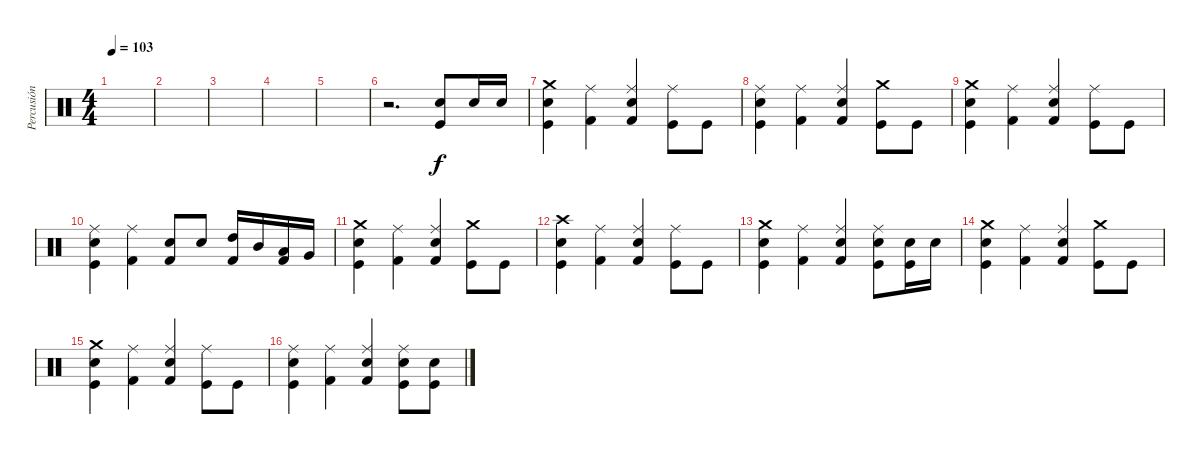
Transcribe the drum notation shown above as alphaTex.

\track ("Percusión" "Percusión") {instrument percussion}
\staff {score}
\articulation defaults
\ts (4 4)
\tempo 103
\clef neutral
\ks c
|
|
|
|
|
r.2{d} ("Snare (hit) 2" "Kick (hit)").8 "Snare (hit) 2".16 "Snare (hit) 2".16 |
("Crash medium (hit)" "Kick (hit)" "Snare (hit) 2").4 ("Ride (middle)" "Kick (hit) 2").4 ("Ride (middle)" "Snare (hit) 2" "Kick (hit) 2").4 ("Ride (middle)" "Kick (hit)").8 "Kick (hit)".8 |
("Ride (middle)" "Kick (hit)" "Snare (hit) 2").4 ("Ride (middle)" "Kick (hit) 2").4 ("Ride (middle)" "Snare (hit) 2" "Kick (hit) 2").4 ("Crash medium (hit)" "Kick (hit)").8 "Kick (hit)".8 |
("Crash medium (hit)" "Kick (hit)" "Snare (hit) 2").4 ("Ride (middle)" "Kick (hit) 2").4 ("Ride (middle)" "Snare (hit) 2" "Kick (hit) 2").4 ("Ride (middle)" "Kick (hit)").8 "Kick (hit)".8 |
("Ride (middle)" "Kick (hit)" "Snare (hit) 2").4 ("Ride (middle)" "Kick (hit) 2").4 ("Snare (hit) 2" "Kick (hit) 2").8 "Snare (hit) 2".8 ("High Tom (hit)" "Kick (hit) 2").16 "Mid Tom (hit)".16 ("Low Tom (hit)" "Kick (hit) 2").16 "Very Low Tom (hit)".16 |
("Crash medium (hit)" "Kick (hit)" "Snare (hit) 2").4 ("Ride (middle)" "Kick (hit) 2").4 ("Ride (middle)" "Snare (hit) 2" "Kick (hit) 2").4 ("Crash medium (hit)" "Kick (hit)").8 "Kick (hit)".8 |
("Crash high (hit)" "Kick (hit)" "Snare (hit) 2").4 ("Ride (middle)" "Kick (hit) 2").4 ("Ride (middle)" "Snare (hit) 2" "Kick (hit) 2").4 ("Ride (middle)" "Kick (hit)").8 "Kick (hit)".8 |
("Crash medium (hit)" "Kick (hit)" "Snare (hit) 2").4 ("Ride (middle)" "Kick (hit) 2").4 ("Ride (middle)" "Snare (hit) 2" "Kick (hit) 2").4 ("Ride (middle)" "Kick (hit)" "Snare (hit) 2").8 ("Kick (hit)" "Snare (hit) 2").16 "Snare (hit) 2".16 |
("Crash medium (hit)" "Kick (hit)" "Snare (hit) 2").4 ("Ride (middle)" "Kick (hit) 2").4 ("Ride (middle)" "Snare (hit) 2" "Kick (hit) 2").4 ("Crash medium (hit)" "Kick (hit)").8 "Kick (hit)".8 |
("Crash medium (hit)" "Kick (hit)" "Snare (hit) 2").4 ("Ride (middle)" "Kick (hit) 2").4 ("Ride (middle)" "Snare (hit) 2" "Kick (hit) 2").4 ("Ride (middle)" "Kick (hit)").8 "Kick (hit)".8 |
("Ride (middle)" "Kick (hit)" "Snare (hit) 2").4 ("Ride (middle)" "Kick (hit) 2").4 ("Ride (middle)" "Snare (hit) 2" "Kick (hit) 2").4 ("Ride (middle)" "Kick (hit)" "Snare (hit) 2").8 ("Snare (hit) 2" "Kick (hit)").8
